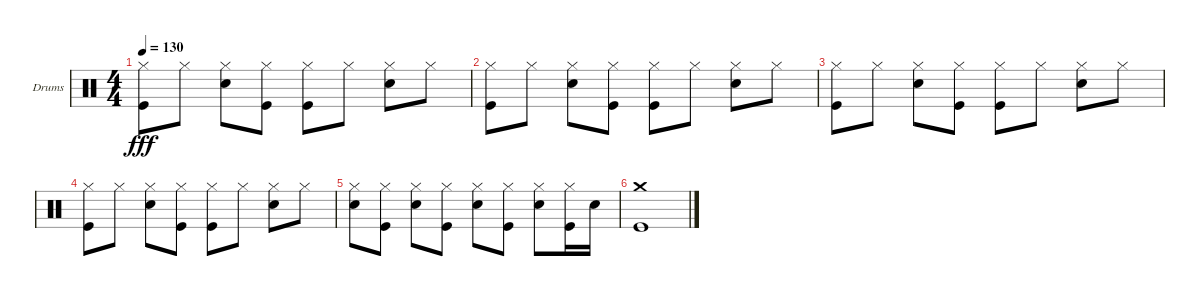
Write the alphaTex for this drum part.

\bracketExtendMode groupsimilarinstruments
\firstSystemTrackNameOrientation horizontal
\otherSystemsTrackNameOrientation horizontal
\track ("Drumkit" "Drums") {instrument percussion}
\staff {score}
\articulation defaults
\ts (4 4)
\tempo 130
\clef neutral
\ks c
("Hi-Hat (closed)" "Kick (hit)").8{dy fff} "Hi-Hat (closed)".8 ("Hi-Hat (closed)" "Snare (hit) 2").8 ("Hi-Hat (closed)" "Kick (hit)").8 ("Hi-Hat (closed)" "Kick (hit)").8 "Hi-Hat (closed)".8 ("Hi-Hat (closed)" "Snare (hit) 2").8 "Hi-Hat (closed)".8 |
("Hi-Hat (closed)" "Kick (hit)").8 "Hi-Hat (closed)".8 ("Hi-Hat (closed)" "Snare (hit) 2").8 ("Hi-Hat (closed)" "Kick (hit)").8 ("Hi-Hat (closed)" "Kick (hit)").8 "Hi-Hat (closed)".8 ("Hi-Hat (closed)" "Snare (hit) 2").8 "Hi-Hat (closed)".8 |
("Hi-Hat (closed)" "Kick (hit)").8 "Hi-Hat (closed)".8 ("Hi-Hat (closed)" "Snare (hit) 2").8 ("Hi-Hat (closed)" "Kick (hit)").8 ("Hi-Hat (closed)" "Kick (hit)").8 "Hi-Hat (closed)".8 ("Hi-Hat (closed)" "Snare (hit) 2").8 "Hi-Hat (closed)".8 |
("Hi-Hat (closed)" "Kick (hit)").8 "Hi-Hat (closed)".8 ("Hi-Hat (closed)" "Snare (hit) 2").8 ("Hi-Hat (closed)" "Kick (hit)").8 ("Hi-Hat (closed)" "Kick (hit)").8 "Hi-Hat (closed)".8 ("Hi-Hat (closed)" "Snare (hit) 2").8 "Hi-Hat (closed)".8 |
("Hi-Hat (closed)" "Snare (hit) 2").8 ("Hi-Hat (closed)" "Kick (hit)").8 ("Hi-Hat (closed)" "Snare (hit) 2").8 ("Hi-Hat (closed)" "Kick (hit)").8 ("Hi-Hat (closed)" "Snare (hit) 2").8 ("Hi-Hat (closed)" "Kick (hit)").8 ("Hi-Hat (closed)" "Snare (hit) 2").8 ("Hi-Hat (closed)" "Kick (hit)").16 "Snare (hit) 2".16 |
("Crash medium (hit)" "Kick (hit)").1
